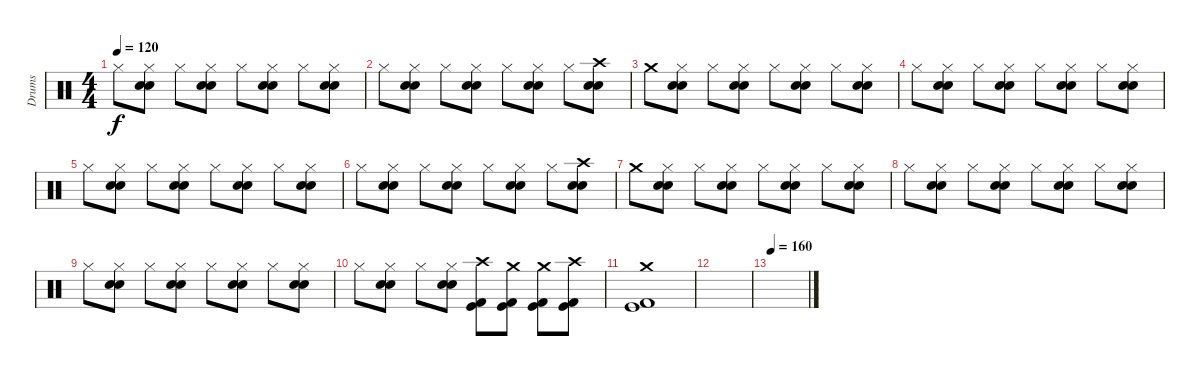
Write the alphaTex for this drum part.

\track ("Drums" "Drums") {instrument percussion}
\staff {score}
\articulation defaults
\ts (4 4)
\tempo 120
\clef neutral
\ks c "Hi-Hat (closed)".8{dy f}
("Hi-Hat (closed)" "Electric Snare (hit)" "Snare (hit) 2").8 "Hi-Hat (closed)".8 ("Hi-Hat (closed)" "Electric Snare (hit)" "Snare (hit) 2").8 "Hi-Hat (closed)".8 ("Hi-Hat (closed)" "Electric Snare (hit)" "Snare (hit) 2").8 "Hi-Hat (closed)".8 ("Hi-Hat (closed)" "Electric Snare (hit)" "Snare (hit) 2").8 |
"Hi-Hat (closed)".8 ("Hi-Hat (closed)" "Electric Snare (hit)" "Snare (hit) 2").8 "Hi-Hat (closed)".8 ("Hi-Hat (closed)" "Electric Snare (hit)" "Snare (hit) 2").8 "Hi-Hat (closed)".8 ("Hi-Hat (closed)" "Electric Snare (hit)" "Snare (hit) 2").8 "Hi-Hat (closed)".8 ("Crash high (hit)" "Electric Snare (hit)" "Snare (hit) 2").8 |
"Crash medium (hit)".8 ("Hi-Hat (closed)" "Electric Snare (hit)" "Snare (hit) 2").8 "Hi-Hat (closed)".8 ("Hi-Hat (closed)" "Electric Snare (hit)" "Snare (hit) 2").8 "Hi-Hat (closed)".8 ("Hi-Hat (closed)" "Electric Snare (hit)" "Snare (hit) 2").8 "Hi-Hat (closed)".8 ("Hi-Hat (closed)" "Electric Snare (hit)" "Snare (hit) 2").8 |
"Hi-Hat (closed)".8 ("Hi-Hat (closed)" "Electric Snare (hit)" "Snare (hit) 2").8 "Hi-Hat (closed)".8 ("Hi-Hat (closed)" "Electric Snare (hit)" "Snare (hit) 2").8 "Hi-Hat (closed)".8 ("Hi-Hat (closed)" "Electric Snare (hit)" "Snare (hit) 2").8 "Hi-Hat (closed)".8 ("Hi-Hat (closed)" "Electric Snare (hit)" "Snare (hit) 2").8 |
"Hi-Hat (closed)".8 ("Hi-Hat (closed)" "Electric Snare (hit)" "Snare (hit) 2").8 "Hi-Hat (closed)".8 ("Hi-Hat (closed)" "Electric Snare (hit)" "Snare (hit) 2").8 "Hi-Hat (closed)".8 ("Hi-Hat (closed)" "Electric Snare (hit)" "Snare (hit) 2").8 "Hi-Hat (closed)".8 ("Hi-Hat (closed)" "Electric Snare (hit)" "Snare (hit) 2").8 |
"Hi-Hat (closed)".8 ("Hi-Hat (closed)" "Electric Snare (hit)" "Snare (hit) 2").8 "Hi-Hat (closed)".8 ("Hi-Hat (closed)" "Electric Snare (hit)" "Snare (hit) 2").8 "Hi-Hat (closed)".8 ("Hi-Hat (closed)" "Electric Snare (hit)" "Snare (hit) 2").8 "Hi-Hat (closed)".8 ("Crash high (hit)" "Electric Snare (hit)" "Snare (hit) 2").8 |
"Crash medium (hit)".8 ("Hi-Hat (closed)" "Electric Snare (hit)" "Snare (hit) 2").8 "Hi-Hat (closed)".8 ("Hi-Hat (closed)" "Electric Snare (hit)" "Snare (hit) 2").8 "Hi-Hat (closed)".8 ("Hi-Hat (closed)" "Electric Snare (hit)" "Snare (hit) 2").8 "Hi-Hat (closed)".8 ("Hi-Hat (closed)" "Electric Snare (hit)" "Snare (hit) 2").8 |
"Hi-Hat (closed)".8 ("Hi-Hat (closed)" "Electric Snare (hit)" "Snare (hit) 2").8 "Hi-Hat (closed)".8 ("Hi-Hat (closed)" "Electric Snare (hit)" "Snare (hit) 2").8 "Hi-Hat (closed)".8 ("Hi-Hat (closed)" "Electric Snare (hit)" "Snare (hit) 2").8 "Hi-Hat (closed)".8 ("Hi-Hat (closed)" "Electric Snare (hit)" "Snare (hit) 2").8 |
"Hi-Hat (closed)".8 ("Hi-Hat (closed)" "Electric Snare (hit)" "Snare (hit) 2").8 "Hi-Hat (closed)".8 ("Hi-Hat (closed)" "Electric Snare (hit)" "Snare (hit) 2").8 "Hi-Hat (closed)".8 ("Hi-Hat (closed)" "Electric Snare (hit)" "Snare (hit) 2").8 "Hi-Hat (closed)".8 ("Hi-Hat (closed)" "Electric Snare (hit)" "Snare (hit) 2").8 |
"Hi-Hat (closed)".8 ("Hi-Hat (closed)" "Electric Snare (hit)" "Snare (hit) 2").8 "Hi-Hat (closed)".8 ("Hi-Hat (closed)" "Electric Snare (hit)" "Snare (hit) 2").8 ("Kick (hit) 2" "Kick (hit)" "Crash high (hit)").8 ("Kick (hit) 2" "Kick (hit)" "Crash medium (hit)").8 ("Kick (hit) 2" "Kick (hit)" "Crash medium (hit)").8 ("Kick (hit) 2" "Kick (hit)" "Crash high (hit)").8 |
("Kick (hit) 2" "Kick (hit)" "Crash medium (hit)").1 |
|
\tempo 160
